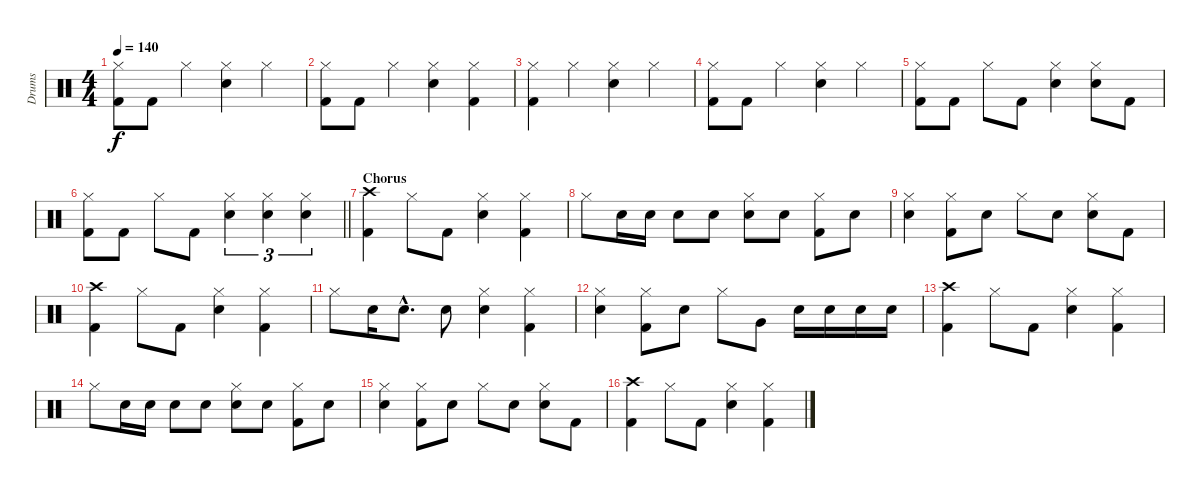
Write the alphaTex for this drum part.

\track ("Drums" "Drums") {instrument percussion}
\staff {score}
\articulation defaults
\ts (4 4)
\tempo 140
\clef neutral
\ks c
("Hi-Hat (closed)" "Kick (hit) 2").8{dy f} "Kick (hit) 2".8 "Hi-Hat (closed)".4 ("Hi-Hat (closed)" "Snare (hit) 2").4 "Hi-Hat (closed)".4 |
("Hi-Hat (closed)" "Kick (hit) 2").8 "Kick (hit) 2".8 "Hi-Hat (closed)".4 ("Hi-Hat (closed)" "Snare (hit) 2").4 ("Hi-Hat (closed)" "Kick (hit) 2").4 |
("Hi-Hat (closed)" "Kick (hit) 2").4 "Hi-Hat (closed)".4 ("Hi-Hat (closed)" "Snare (hit) 2").4 "Hi-Hat (closed)".4 |
("Hi-Hat (closed)" "Kick (hit) 2").8 "Kick (hit) 2".8 "Hi-Hat (closed)".4 ("Hi-Hat (closed)" "Snare (hit) 2").4 "Hi-Hat (closed)".4 |
("Hi-Hat (closed)" "Kick (hit) 2").8 "Kick (hit) 2".8 "Hi-Hat (closed)".8 "Kick (hit) 2".8 ("Hi-Hat (closed)" "Snare (hit) 2").4 ("Hi-Hat (closed)" "Snare (hit) 2").8 "Kick (hit) 2".8 |
\barLineRight lightlight
("Hi-Hat (closed)" "Kick (hit) 2").8 "Kick (hit) 2".8 "Hi-Hat (closed)".8 "Kick (hit) 2".8 ("Hi-Hat (closed)" "Snare (hit) 2").4{tu (3 2)} ("Hi-Hat (closed)" "Snare (hit) 2").4{tu (3 2)} ("Hi-Hat (closed)" "Snare (hit) 2").4{tu (3 2)} |
\section ("" "Chorus")
("Crash high (hit)" "Kick (hit) 2").4 "Hi-Hat (closed)".8 "Kick (hit) 2".8 ("Hi-Hat (closed)" "Snare (hit) 2").4 ("Hi-Hat (closed)" "Kick (hit) 2").4 |
"Hi-Hat (closed)".8 "Snare (hit) 2".16 "Electric Snare (hit)".16 "Snare (hit) 2".8 "Electric Snare (hit)".8 ("Hi-Hat (closed)" "Snare (hit) 2").8 "Electric Snare (hit)".8 ("Hi-Hat (closed)" "Kick (hit) 2").8 "Electric Snare (hit)".8 |
("Hi-Hat (closed)" "Snare (hit) 2").4 ("Hi-Hat (closed)" "Kick (hit) 2").8 "Snare (hit) 2".8 "Hi-Hat (closed)".8 "Electric Snare (hit)".8 ("Hi-Hat (closed)" "Snare (hit) 2").8 "Kick (hit) 2".8 |
("Crash high (hit)" "Kick (hit) 2").4 "Hi-Hat (closed)".8 "Kick (hit) 2".8 ("Hi-Hat (closed)" "Snare (hit) 2").4 ("Hi-Hat (closed)" "Kick (hit) 2").4 |
"Hi-Hat (closed)".8 "Snare (hit) 2".16 "Snare (hit) 2"{hac}.8{d} "Snare (hit) 2".8 ("Hi-Hat (closed)" "Snare (hit) 2").4 ("Hi-Hat (closed)" "Kick (hit) 2").4 |
("Hi-Hat (closed)" "Snare (hit) 2").4 ("Hi-Hat (closed)" "Kick (hit) 2").8 "Snare (hit) 2".8 "Hi-Hat (closed)".8 "Very Low Tom (hit)".8 "Snare (hit) 2".16 "Electric Snare (hit)".16 "Snare (hit) 2".16 "Electric Snare (hit)".16 |
("Crash high (hit)" "Kick (hit) 2").4 "Hi-Hat (closed)".8 "Kick (hit) 2".8 ("Hi-Hat (closed)" "Snare (hit) 2").4 ("Hi-Hat (closed)" "Kick (hit) 2").4 |
"Hi-Hat (closed)".8 "Snare (hit) 2".16 "Electric Snare (hit)".16 "Snare (hit) 2".8 "Electric Snare (hit)".8 ("Hi-Hat (closed)" "Snare (hit) 2").8 "Electric Snare (hit)".8 ("Hi-Hat (closed)" "Kick (hit) 2").8 "Electric Snare (hit)".8 |
("Hi-Hat (closed)" "Snare (hit) 2").4 ("Hi-Hat (closed)" "Kick (hit) 2").8 "Snare (hit) 2".8 "Hi-Hat (closed)".8 "Electric Snare (hit)".8 ("Hi-Hat (closed)" "Snare (hit) 2").8 "Kick (hit) 2".8 |
("Crash high (hit)" "Kick (hit) 2").4 "Hi-Hat (closed)".8 "Kick (hit) 2".8 ("Hi-Hat (closed)" "Snare (hit) 2").4 ("Hi-Hat (closed)" "Kick (hit) 2").4
